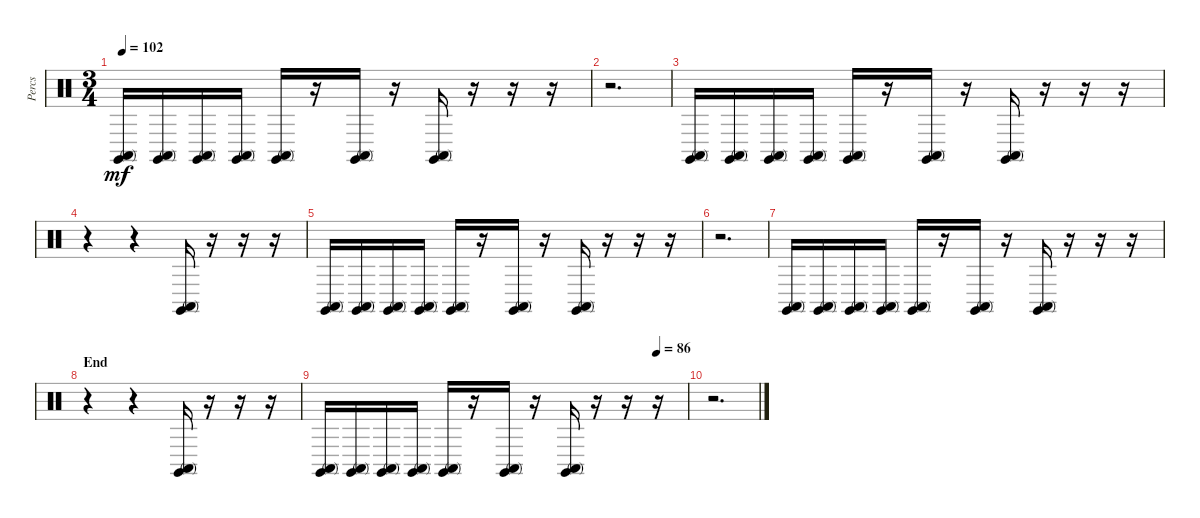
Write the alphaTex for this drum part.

\track ("Percs" "Percs") {instrument percussion}
\staff {score}
\articulation defaults
\ts (3 4)
\tempo 102
\clef neutral
\ks c
("Claves (hit)" "Conga high (mute)").16{dy mf} ("Claves (hit)" "Conga high (mute)").16 ("Claves (hit)" "Conga high (mute)").16 ("Claves (hit)" "Conga high (mute)").16 ("Claves (hit)" "Conga high (mute)").16 r.16 ("Claves (hit)" "Conga high (mute)").16 r.16 ("Claves (hit)" "Conga high (mute)").16 r.16 r.16 r.16 |
r.2{d} |
("Claves (hit)" "Conga high (mute)").16 ("Claves (hit)" "Conga high (mute)").16 ("Claves (hit)" "Conga high (mute)").16 ("Claves (hit)" "Conga high (mute)").16 ("Claves (hit)" "Conga high (mute)").16 r.16 ("Claves (hit)" "Conga high (mute)").16 r.16 ("Claves (hit)" "Conga high (mute)").16 r.16 r.16 r.16 |
r.4 r.4 ("Claves (hit)" "Conga high (mute)").16 r.16 r.16 r.16 |
("Claves (hit)" "Conga high (mute)").16 ("Claves (hit)" "Conga high (mute)").16 ("Claves (hit)" "Conga high (mute)").16 ("Claves (hit)" "Conga high (mute)").16 ("Claves (hit)" "Conga high (mute)").16 r.16 ("Claves (hit)" "Conga high (mute)").16 r.16 ("Claves (hit)" "Conga high (mute)").16 r.16 r.16 r.16 |
r.2{d} |
("Claves (hit)" "Conga high (mute)").16 ("Claves (hit)" "Conga high (mute)").16 ("Claves (hit)" "Conga high (mute)").16 ("Claves (hit)" "Conga high (mute)").16 ("Claves (hit)" "Conga high (mute)").16 r.16 ("Claves (hit)" "Conga high (mute)").16 r.16 ("Claves (hit)" "Conga high (mute)").16 r.16 r.16 r.16 |
\section ("" "End")
r.4 r.4 ("Claves (hit)" "Conga high (mute)").16 r.16 r.16 r.16 |
\tempo (86 0.9166666666666666)
("Claves (hit)" "Conga high (mute)").16 ("Claves (hit)" "Conga high (mute)").16 ("Claves (hit)" "Conga high (mute)").16 ("Claves (hit)" "Conga high (mute)").16 ("Claves (hit)" "Conga high (mute)").16 r.16 ("Claves (hit)" "Conga high (mute)").16 r.16 ("Claves (hit)" "Conga high (mute)").16 r.16 r.16 r.16 |
r.2{d}
